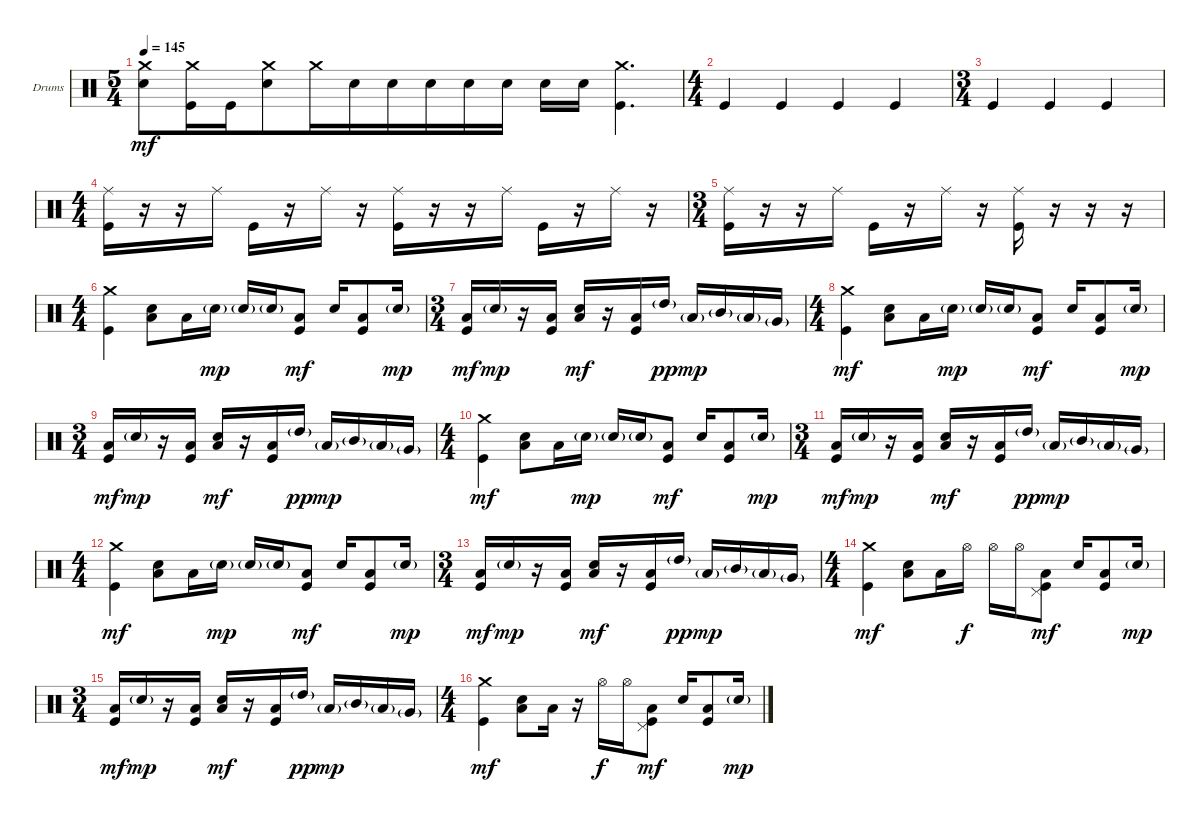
\bracketExtendMode groupsimilarinstruments
\firstSystemTrackNameOrientation horizontal
\otherSystemsTrackNameOrientation horizontal
\track ("Drumkit" "Drums") {instrument percussion}
\staff {score}
\articulation defaults
\ts (5 4)
\beaming (8 6 4)
\tempo 145
\clef neutral
\ks c
("Crash medium (hit)" "Snare (hit) 2").8{dy mf} ("Crash medium (hit)" "Kick (hit)").16 "Kick (hit)".16 ("Crash medium (hit)" "Snare (hit) 2").8 "Crash medium (hit)".16 "Snare (hit) 2".16 "Snare (hit) 2".16 "Snare (hit) 2".16 "Snare (hit) 2".16 "Snare (hit) 2".16 "Snare (hit) 2".16 "Snare (hit) 2".16 ("Crash medium (hit)" "Kick (hit)").4{d} |
\ts (4 4)
\beaming (8 2 2 2 2)
"Kick (hit)".4 "Kick (hit)".4 "Kick (hit)".4 "Kick (hit)".4 |
\ts (3 4)
\beaming (8 2 2 2)
"Kick (hit)".4 "Kick (hit)".4 "Kick (hit)".4 |
\ts (4 4)
\beaming (8 2 2 2 2)
("Kick (hit)" "Ride (middle)").16 r.16 r.16 "Ride (middle)".16 "Kick (hit)".16 r.16 "Ride (middle)".16 r.16 ("Kick (hit)" "Ride (middle)").16 r.16 r.16 "Ride (middle)".16 "Kick (hit)".16 r.16 "Ride (middle)".16 r.16 |
\ts (3 4)
\beaming (8 2 2 2)
("Kick (hit)" "Ride (middle)").16 r.16 r.16 "Ride (middle)".16 "Kick (hit)".16 r.16 "Ride (middle)".16 r.16 ("Kick (hit)" "Ride (middle)").16 r.16 r.16 r.16 |
\ts (4 4)
\beaming (8 2 2 2 2)
("Crash medium (hit)" "Kick (hit)").4 ("Low Tom (hit)" "Snare (hit) 2").8 "Low Tom (hit)".16 "Snare (hit) 2"{g}.16{dy mp} "Snare (hit) 2"{g}.16 "Snare (hit) 2"{g}.16 ("Low Tom (hit)" "Kick (hit)").8{dy mf} "Snare (hit) 2".16 ("Low Tom (hit)" "Kick (hit)").8 "Snare (hit) 2"{g}.16{dy mp} |
\ts (3 4)
\beaming (8 2 2 2)
("Low Tom (hit)" "Kick (hit)").16{dy mf} "Snare (hit) 2"{g}.16{dy mp} r.16 ("Low Tom (hit)" "Kick (hit)").16 ("Low Tom (hit)" "Snare (hit) 2").16{dy mf} r.16 ("Low Tom (hit)" "Kick (hit)").16 "High Tom (hit)"{g}.16{dy pp} "Low Tom (hit)"{g}.16{dy mp} "Mid Tom (hit)"{g}.16 "Low Tom (hit)"{g}.16 "Very Low Tom (hit)"{g}.16 |
\ts (4 4)
\beaming (8 2 2 2 2)
("Crash medium (hit)" "Kick (hit)").4{dy mf} ("Low Tom (hit)" "Snare (hit) 2").8 "Low Tom (hit)".16 "Snare (hit) 2"{g}.16{dy mp} "Snare (hit) 2"{g}.16 "Snare (hit) 2"{g}.16 ("Low Tom (hit)" "Kick (hit)").8{dy mf} "Snare (hit) 2".16 ("Low Tom (hit)" "Kick (hit)").8 "Snare (hit) 2"{g}.16{dy mp} |
\ts (3 4)
\beaming (8 2 2 2)
("Low Tom (hit)" "Kick (hit)").16{dy mf} "Snare (hit) 2"{g}.16{dy mp} r.16 ("Low Tom (hit)" "Kick (hit)").16 ("Low Tom (hit)" "Snare (hit) 2").16{dy mf} r.16 ("Low Tom (hit)" "Kick (hit)").16 "High Tom (hit)"{g}.16{dy pp} "Low Tom (hit)"{g}.16{dy mp} "Mid Tom (hit)"{g}.16 "Low Tom (hit)"{g}.16 "Very Low Tom (hit)"{g}.16 |
\ts (4 4)
\beaming (8 2 2 2 2)
("Crash medium (hit)" "Kick (hit)").4{dy mf} ("Low Tom (hit)" "Snare (hit) 2").8 "Low Tom (hit)".16 "Snare (hit) 2"{g}.16{dy mp} "Snare (hit) 2"{g}.16 "Snare (hit) 2"{g}.16 ("Low Tom (hit)" "Kick (hit)").8{dy mf} "Snare (hit) 2".16 ("Low Tom (hit)" "Kick (hit)").8 "Snare (hit) 2"{g}.16{dy mp} |
\ts (3 4)
\beaming (8 2 2 2)
("Low Tom (hit)" "Kick (hit)").16{dy mf} "Snare (hit) 2"{g}.16{dy mp} r.16 ("Low Tom (hit)" "Kick (hit)").16 ("Low Tom (hit)" "Snare (hit) 2").16{dy mf} r.16 ("Low Tom (hit)" "Kick (hit)").16 "High Tom (hit)"{g}.16{dy pp} "Low Tom (hit)"{g}.16{dy mp} "Mid Tom (hit)"{g}.16 "Low Tom (hit)"{g}.16 "Very Low Tom (hit)"{g}.16 |
\ts (4 4)
\beaming (8 2 2 2 2)
("Crash medium (hit)" "Kick (hit)").4{dy mf} ("Low Tom (hit)" "Snare (hit) 2").8 "Low Tom (hit)".16 "Snare (hit) 2"{g}.16{dy mp} "Snare (hit) 2"{g}.16 "Snare (hit) 2"{g}.16 ("Low Tom (hit)" "Kick (hit)").8{dy mf} "Snare (hit) 2".16 ("Low Tom (hit)" "Kick (hit)").8 "Snare (hit) 2"{g}.16{dy mp} |
\ts (3 4)
\beaming (8 2 2 2)
("Low Tom (hit)" "Kick (hit)").16{dy mf} "Snare (hit) 2"{g}.16{dy mp} r.16 ("Low Tom (hit)" "Kick (hit)").16 ("Low Tom (hit)" "Snare (hit) 2").16{dy mf} r.16 ("Low Tom (hit)" "Kick (hit)").16 "High Tom (hit)"{g}.16{dy pp} "Low Tom (hit)"{g}.16{dy mp} "Mid Tom (hit)"{g}.16 "Low Tom (hit)"{g}.16 "Very Low Tom (hit)"{g}.16 |
\ts (4 4)
\beaming (8 2 2 2 2)
("Crash medium (hit)" "Kick (hit)").4{dy mf} ("Low Tom (hit)" "Snare (hit) 2").8 "Low Tom (hit)".16 "Hi-Hat (open)".16{dy f} "Hi-Hat (open)".16 "Hi-Hat (open)".16 ("Low Tom (hit)" "Kick (hit)" "Pedal Hi-Hat (hit)").8{dy mf} "Snare (hit) 2".16 ("Low Tom (hit)" "Kick (hit)").8 "Snare (hit) 2"{g}.16{dy mp} |
\ts (3 4)
\beaming (8 2 2 2)
("Low Tom (hit)" "Kick (hit)").16{dy mf} "Snare (hit) 2"{g}.16{dy mp} r.16 ("Low Tom (hit)" "Kick (hit)").16 ("Low Tom (hit)" "Snare (hit) 2").16{dy mf} r.16 ("Low Tom (hit)" "Kick (hit)").16 "High Tom (hit)"{g}.16{dy pp} "Low Tom (hit)"{g}.16{dy mp} "Mid Tom (hit)"{g}.16 "Low Tom (hit)"{g}.16 "Very Low Tom (hit)"{g}.16 |
\ts (4 4)
\beaming (8 2 2 2 2)
("Crash medium (hit)" "Kick (hit)").4{dy mf} ("Low Tom (hit)" "Snare (hit) 2").8 "Low Tom (hit)".16 r.16 "Hi-Hat (open)".16{dy f} "Hi-Hat (open)".16 ("Low Tom (hit)" "Kick (hit)" "Pedal Hi-Hat (hit)").8{dy mf} "Snare (hit) 2".16 ("Low Tom (hit)" "Kick (hit)").8 "Snare (hit) 2"{g}.16{dy mp}
